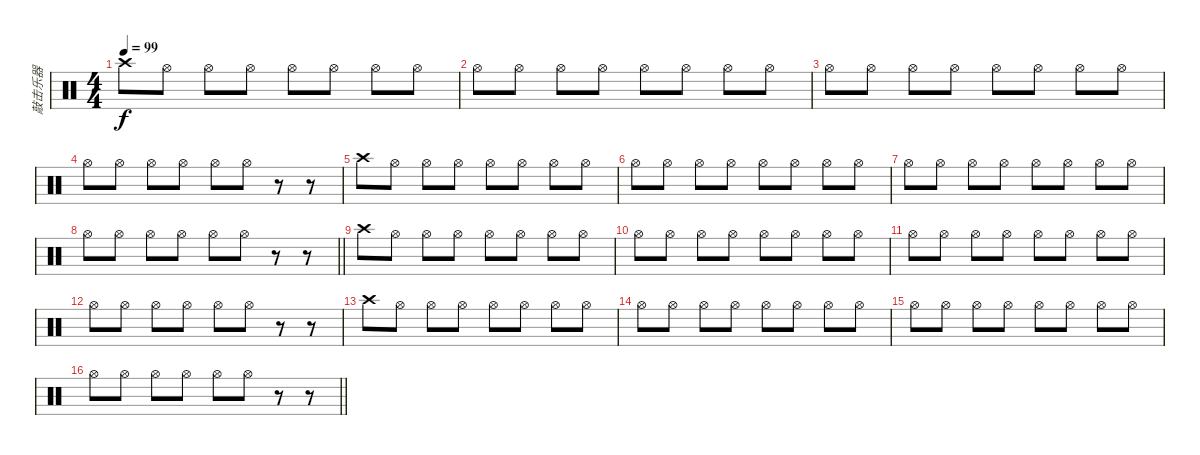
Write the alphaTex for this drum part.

\track ("敲击乐器" "敲击乐器") {instrument percussion}
\staff {score}
\articulation defaults
\ts (4 4)
\tempo 99
\clef neutral
\ks c "Crash high (hit)".8{dy f} "Hi-Hat (open)".8 "Hi-Hat (open)".8 "Hi-Hat (open)".8 "Hi-Hat (open)".8 "Hi-Hat (open)".8 "Hi-Hat (open)".8 "Hi-Hat (open)".8
|
"Hi-Hat (open)".8 "Hi-Hat (open)".8 "Hi-Hat (open)".8 "Hi-Hat (open)".8 "Hi-Hat (open)".8 "Hi-Hat (open)".8 "Hi-Hat (open)".8 "Hi-Hat (open)".8 |
"Hi-Hat (open)".8 "Hi-Hat (open)".8 "Hi-Hat (open)".8 "Hi-Hat (open)".8 "Hi-Hat (open)".8 "Hi-Hat (open)".8 "Hi-Hat (open)".8 "Hi-Hat (open)".8 |
"Hi-Hat (open)".8 "Hi-Hat (open)".8 "Hi-Hat (open)".8 "Hi-Hat (open)".8 "Hi-Hat (open)".8 "Hi-Hat (open)".8 r.8 r.8 |
"Crash high (hit)".8 "Hi-Hat (open)".8 "Hi-Hat (open)".8 "Hi-Hat (open)".8 "Hi-Hat (open)".8 "Hi-Hat (open)".8 "Hi-Hat (open)".8 "Hi-Hat (open)".8 |
"Hi-Hat (open)".8 "Hi-Hat (open)".8 "Hi-Hat (open)".8 "Hi-Hat (open)".8 "Hi-Hat (open)".8 "Hi-Hat (open)".8 "Hi-Hat (open)".8 "Hi-Hat (open)".8 |
"Hi-Hat (open)".8 "Hi-Hat (open)".8 "Hi-Hat (open)".8 "Hi-Hat (open)".8 "Hi-Hat (open)".8 "Hi-Hat (open)".8 "Hi-Hat (open)".8 "Hi-Hat (open)".8 |
\barLineRight lightlight "Hi-Hat (open)".8 "Hi-Hat (open)".8 "Hi-Hat (open)".8 "Hi-Hat (open)".8 "Hi-Hat (open)".8 "Hi-Hat (open)".8
r.8 r.8 |
"Crash high (hit)".8 "Hi-Hat (open)".8 "Hi-Hat (open)".8 "Hi-Hat (open)".8 "Hi-Hat (open)".8 "Hi-Hat (open)".8 "Hi-Hat (open)".8 "Hi-Hat (open)".8 |
"Hi-Hat (open)".8 "Hi-Hat (open)".8 "Hi-Hat (open)".8 "Hi-Hat (open)".8 "Hi-Hat (open)".8 "Hi-Hat (open)".8 "Hi-Hat (open)".8 "Hi-Hat (open)".8 |
"Hi-Hat (open)".8 "Hi-Hat (open)".8 "Hi-Hat (open)".8 "Hi-Hat (open)".8 "Hi-Hat (open)".8 "Hi-Hat (open)".8 "Hi-Hat (open)".8 "Hi-Hat (open)".8 |
"Hi-Hat (open)".8 "Hi-Hat (open)".8 "Hi-Hat (open)".8 "Hi-Hat (open)".8 "Hi-Hat (open)".8 "Hi-Hat (open)".8 r.8 r.8 |
"Crash high (hit)".8 "Hi-Hat (open)".8 "Hi-Hat (open)".8 "Hi-Hat (open)".8 "Hi-Hat (open)".8 "Hi-Hat (open)".8 "Hi-Hat (open)".8 "Hi-Hat (open)".8 |
"Hi-Hat (open)".8 "Hi-Hat (open)".8 "Hi-Hat (open)".8 "Hi-Hat (open)".8 "Hi-Hat (open)".8 "Hi-Hat (open)".8 "Hi-Hat (open)".8 "Hi-Hat (open)".8 |
"Hi-Hat (open)".8 "Hi-Hat (open)".8 "Hi-Hat (open)".8 "Hi-Hat (open)".8 "Hi-Hat (open)".8 "Hi-Hat (open)".8 "Hi-Hat (open)".8 "Hi-Hat (open)".8 |
\barLineRight lightlight "Hi-Hat (open)".8 "Hi-Hat (open)".8 "Hi-Hat (open)".8 "Hi-Hat (open)".8 "Hi-Hat (open)".8 "Hi-Hat (open)".8
r.8 r.8
